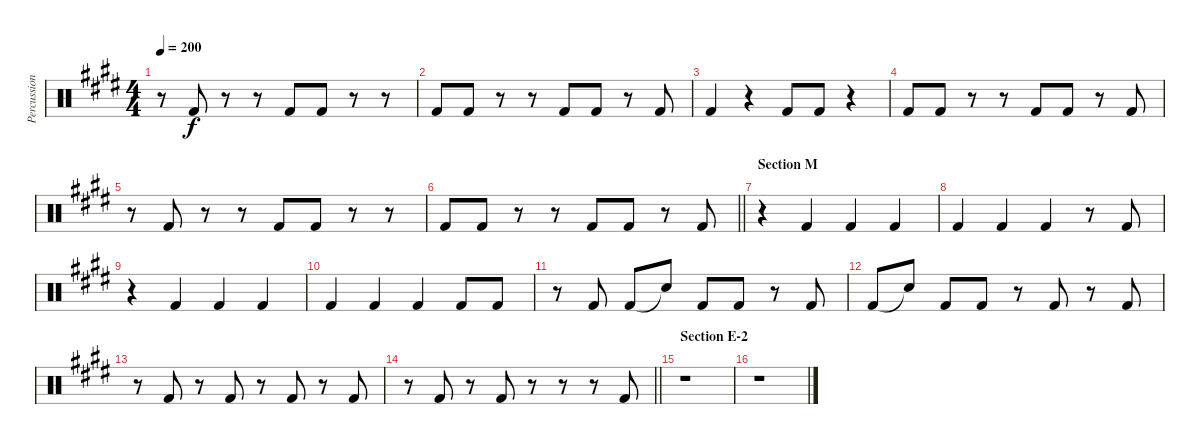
\track ("Percussion - bass drum" "Percussion") {instrument percussion}
\staff {score}
\articulation defaults
\ts (4 4)
\tempo 200
\clef neutral
\ks e
r.8{dy f} "Kick (hit) 2".8 r.8 r.8 "Kick (hit) 2".8 "Kick (hit) 2".8 r.8 r.8 |
"Kick (hit) 2".8 "Kick (hit) 2".8 r.8 r.8 "Kick (hit) 2".8 "Kick (hit) 2".8 r.8 "Kick (hit) 2".8 |
"Kick (hit) 2".4 r.4 "Kick (hit) 2".8 "Kick (hit) 2".8 r.4 |
"Kick (hit) 2".8 "Kick (hit) 2".8 r.8 r.8 "Kick (hit) 2".8 "Kick (hit) 2".8 r.8 "Kick (hit) 2".8 |
r.8 "Kick (hit) 2".8 r.8 r.8 "Kick (hit) 2".8 "Kick (hit) 2".8 r.8 r.8 |
\barLineRight lightlight "Kick (hit) 2".8 "Kick (hit) 2".8
r.8 r.8 "Kick (hit) 2".8 "Kick (hit) 2".8 r.8 "Kick (hit) 2".8 |
\section ("" "Section M")
r.4 "Kick (hit) 2".4 "Kick (hit) 2".4 "Kick (hit) 2".4 |
"Kick (hit) 2".4 "Kick (hit) 2".4 "Kick (hit) 2".4 r.8 "Kick (hit) 2".8 |
r.4 "Kick (hit) 2".4 "Kick (hit) 2".4 "Kick (hit) 2".4 |
"Kick (hit) 2".4 "Kick (hit) 2".4 "Kick (hit) 2".4 "Kick (hit) 2".8 "Kick (hit) 2".8 |
r.8 "Kick (hit) 2".8 "Kick (hit) 2".8 "Snare (hit)"{t}.8 "Kick (hit) 2".8 "Kick (hit) 2".8 r.8 "Kick (hit) 2".8 |
"Kick (hit) 2".8 "Snare (hit)"{t}.8 "Kick (hit) 2".8 "Kick (hit) 2".8 r.8 "Kick (hit) 2".8 r.8 "Kick (hit) 2".8 |
r.8 "Kick (hit) 2".8 r.8 "Kick (hit) 2".8 r.8 "Kick (hit) 2".8 r.8 "Kick (hit) 2".8 |
\barLineRight lightlight
r.8 "Kick (hit) 2".8 r.8 "Kick (hit) 2".8 r.8 r.8 r.8 "Kick (hit) 2".8 |
\section ("" "Section E-2")
r.1 |
r.1
